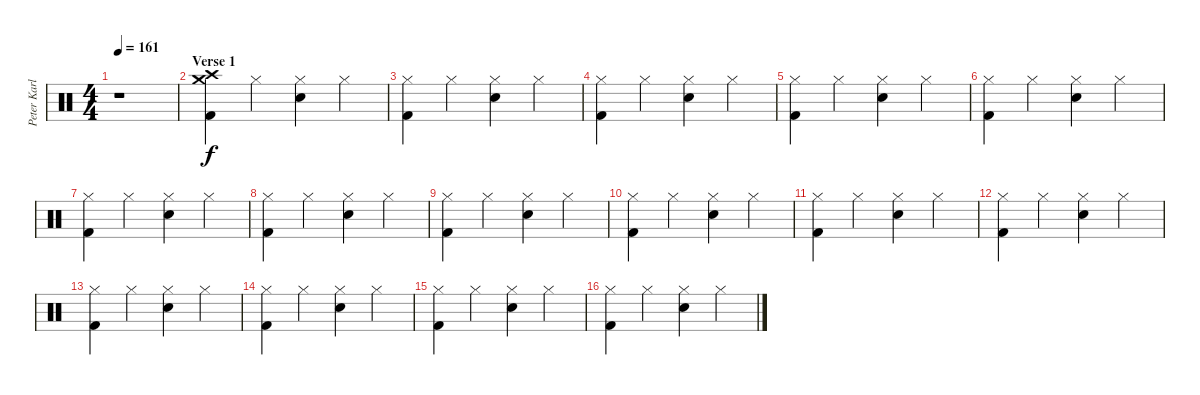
\track ("Peter Karlsson" "Peter Karl") {instrument percussion}
\staff {score}
\articulation defaults
\ts (4 4)
\tempo 161
\clef neutral
\ks c
r.1{dy f} |
\section ("" "Verse 1")
("Crash high (hit)" "Crash medium (hit)" "Kick (hit) 2").4 "Hi-Hat (closed)".4 ("Hi-Hat (closed)" "Snare (hit) 2").4 "Hi-Hat (closed)".4 |
("Hi-Hat (closed)" "Kick (hit) 2").4 "Hi-Hat (closed)".4 ("Hi-Hat (closed)" "Snare (hit) 2").4 "Hi-Hat (closed)".4 |
("Hi-Hat (closed)" "Kick (hit) 2").4 "Hi-Hat (closed)".4 ("Hi-Hat (closed)" "Snare (hit) 2").4 "Hi-Hat (closed)".4 |
("Hi-Hat (closed)" "Kick (hit) 2").4 "Hi-Hat (closed)".4 ("Hi-Hat (closed)" "Snare (hit) 2").4 "Hi-Hat (closed)".4 |
("Hi-Hat (closed)" "Kick (hit) 2").4 "Hi-Hat (closed)".4 ("Hi-Hat (closed)" "Snare (hit) 2").4 "Hi-Hat (closed)".4 |
("Hi-Hat (closed)" "Kick (hit) 2").4 "Hi-Hat (closed)".4 ("Hi-Hat (closed)" "Snare (hit) 2").4 "Hi-Hat (closed)".4 |
("Hi-Hat (closed)" "Kick (hit) 2").4 "Hi-Hat (closed)".4 ("Hi-Hat (closed)" "Snare (hit) 2").4 "Hi-Hat (closed)".4 |
("Hi-Hat (closed)" "Kick (hit) 2").4 "Hi-Hat (closed)".4 ("Hi-Hat (closed)" "Snare (hit) 2").4 "Hi-Hat (closed)".4 |
("Hi-Hat (closed)" "Kick (hit) 2").4 "Hi-Hat (closed)".4 ("Hi-Hat (closed)" "Snare (hit) 2").4 "Hi-Hat (closed)".4 |
("Hi-Hat (closed)" "Kick (hit) 2").4 "Hi-Hat (closed)".4 ("Hi-Hat (closed)" "Snare (hit) 2").4 "Hi-Hat (closed)".4 |
("Hi-Hat (closed)" "Kick (hit) 2").4 "Hi-Hat (closed)".4 ("Hi-Hat (closed)" "Snare (hit) 2").4 "Hi-Hat (closed)".4 |
("Hi-Hat (closed)" "Kick (hit) 2").4 "Hi-Hat (closed)".4 ("Hi-Hat (closed)" "Snare (hit) 2").4 "Hi-Hat (closed)".4 |
("Hi-Hat (closed)" "Kick (hit) 2").4 "Hi-Hat (closed)".4 ("Hi-Hat (closed)" "Snare (hit) 2").4 "Hi-Hat (closed)".4 |
("Hi-Hat (closed)" "Kick (hit) 2").4 "Hi-Hat (closed)".4 ("Hi-Hat (closed)" "Snare (hit) 2").4 "Hi-Hat (closed)".4 |
("Hi-Hat (closed)" "Kick (hit) 2").4 "Hi-Hat (closed)".4 ("Hi-Hat (closed)" "Snare (hit) 2").4 "Hi-Hat (closed)".4
